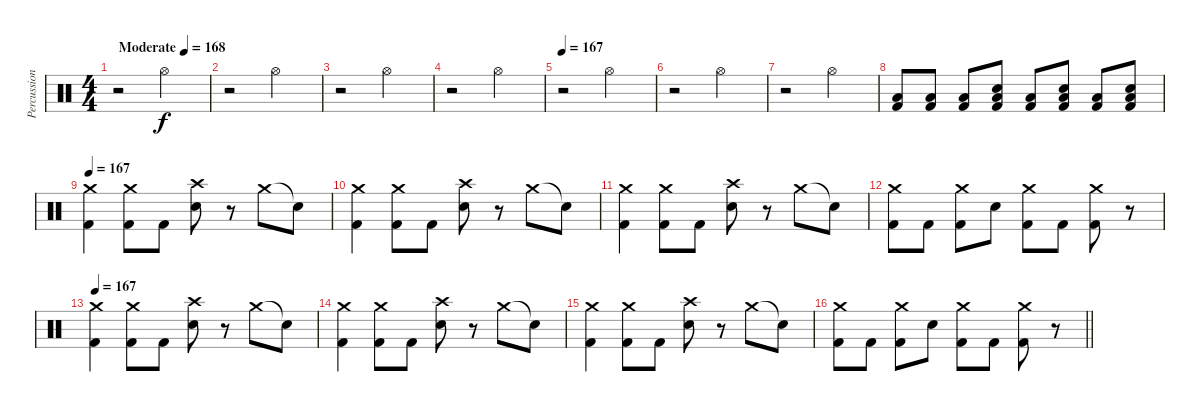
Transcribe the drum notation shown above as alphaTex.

\track ("Percussion" "Percussion") {instrument percussion}
\staff {score}
\articulation defaults
\ts (4 4)
\section ("" "")
\tempo (168 "Moderate")
\tempo 167
\tempo (168 "Moderate")
\clef neutral
\ks c
r.2{dy f} "Hi-Hat (open)".2 |
r.2 "Hi-Hat (open)".2 |
r.2 "Hi-Hat (open)".2 |
r.2 "Hi-Hat (open)".2 |
\tempo 167
r.2 "Hi-Hat (open)".2 |
r.2 "Hi-Hat (open)".2 |
r.2 "Hi-Hat (open)".2 |
("Low Floor Tom (hit)" "Kick (hit) 2").8 ("Low Floor Tom (hit)" "Kick (hit) 2").8 ("Low Floor Tom (hit)" "Kick (hit) 2").8 ("Low Floor Tom (hit)" "Electric Snare (hit)" "Kick (hit) 2").8 ("Low Floor Tom (hit)" "Kick (hit) 2").8 ("Low Floor Tom (hit)" "Electric Snare (hit)" "Kick (hit) 2").8 ("Low Floor Tom (hit)" "Kick (hit) 2").8 ("Low Floor Tom (hit)" "Electric Snare (hit)" "Kick (hit) 2").8 |
\tempo 167
("Crash medium (hit)" "Kick (hit) 2").4 ("Crash medium (hit)" "Kick (hit) 2").8 "Kick (hit) 2".8 ("Crash high (hit)" "Electric Snare (hit)").8 r.8 "Crash medium (hit)".8 "Snare (hit)"{t}.8 |
("Crash medium (hit)" "Kick (hit) 2").4 ("Crash medium (hit)" "Kick (hit) 2").8 "Kick (hit) 2".8 ("Crash high (hit)" "Electric Snare (hit)").8 r.8 "Crash medium (hit)".8 "Snare (hit)"{t}.8 |
("Crash medium (hit)" "Kick (hit) 2").4 ("Crash medium (hit)" "Kick (hit) 2").8 "Kick (hit) 2".8 ("Crash high (hit)" "Electric Snare (hit)").8 r.8 "Crash medium (hit)".8 "Snare (hit)"{t}.8 |
("Crash medium (hit)" "Kick (hit) 2").8 "Kick (hit) 2".8 ("Crash medium (hit)" "Kick (hit) 2").8 "Electric Snare (hit)".8 ("Crash medium (hit)" "Kick (hit) 2").8 "Kick (hit) 2".8 ("Crash medium (hit)" "Kick (hit) 2").8 r.8 |
\tempo 167
("Crash medium (hit)" "Kick (hit) 2").4 ("Crash medium (hit)" "Kick (hit) 2").8 "Kick (hit) 2".8 ("Crash high (hit)" "Electric Snare (hit)").8 r.8 "Crash medium (hit)".8 "Snare (hit)"{t}.8 |
("Crash medium (hit)" "Kick (hit) 2").4 ("Crash medium (hit)" "Kick (hit) 2").8 "Kick (hit) 2".8 ("Crash high (hit)" "Electric Snare (hit)").8 r.8 "Crash medium (hit)".8 "Snare (hit)"{t}.8 |
("Crash medium (hit)" "Kick (hit) 2").4 ("Crash medium (hit)" "Kick (hit) 2").8 "Kick (hit) 2".8 ("Crash high (hit)" "Electric Snare (hit)").8 r.8 "Crash medium (hit)".8 "Snare (hit)"{t}.8 |
\barLineRight lightlight
("Crash medium (hit)" "Kick (hit) 2").8 "Kick (hit) 2".8 ("Crash medium (hit)" "Kick (hit) 2").8 "Electric Snare (hit)".8 ("Crash medium (hit)" "Kick (hit) 2").8 "Kick (hit) 2".8 ("Crash medium (hit)" "Kick (hit) 2").8 r.8
